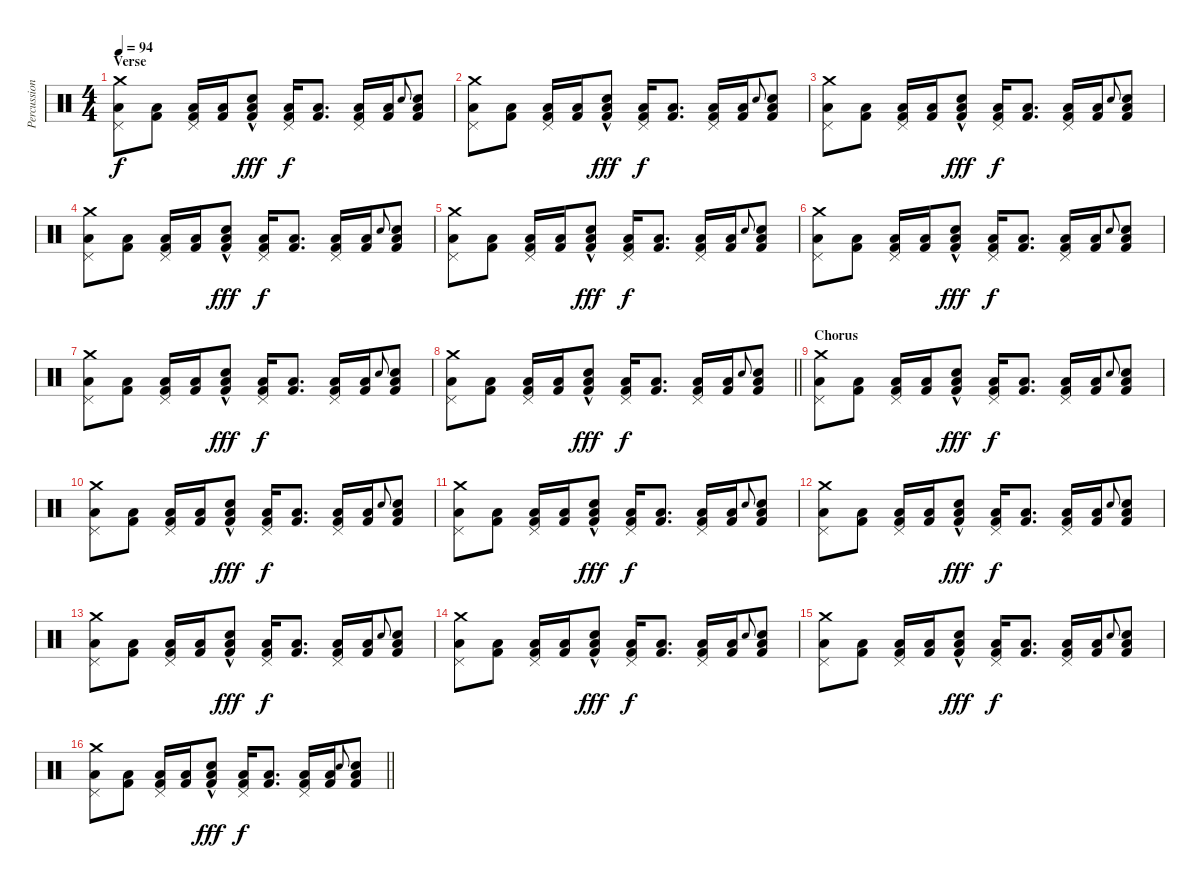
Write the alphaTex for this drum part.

\track ("Percussion" "Percussion") {instrument percussion}
\staff {score}
\articulation defaults
\ts (4 4)
\section ("" "Verse")
\tempo 94
\clef neutral
\ks c
("Crash medium (hit)" "Pedal Hi-Hat (hit)" "Low Floor Tom (hit)").8{dy f} ("Kick (hit) 2" "Low Floor Tom (hit)").8 ("Kick (hit) 2" "Pedal Hi-Hat (hit)" "Low Floor Tom (hit)").16 ("Kick (hit) 2" "Low Floor Tom (hit)").16 ("Snare (hit) 2"{hac} "Kick (hit) 2" "Low Floor Tom (hit)").8{dy fff} ("Kick (hit) 2" "Pedal Hi-Hat (hit)" "Low Floor Tom (hit)").16{dy f} ("Kick (hit) 2" "Low Floor Tom (hit)").8{d} ("Kick (hit) 2" "Pedal Hi-Hat (hit)" "Low Floor Tom (hit)").16 ("Kick (hit) 2" "Low Floor Tom (hit)").16 "Snare (hit) 2".8{gr onbeat} ("Snare (hit) 2" "Kick (hit) 2" "Low Floor Tom (hit)").8 |
("Crash medium (hit)" "Pedal Hi-Hat (hit)" "Low Floor Tom (hit)").8 ("Kick (hit) 2" "Low Floor Tom (hit)").8 ("Kick (hit) 2" "Pedal Hi-Hat (hit)" "Low Floor Tom (hit)").16 ("Kick (hit) 2" "Low Floor Tom (hit)").16 ("Snare (hit) 2"{hac} "Kick (hit) 2" "Low Floor Tom (hit)").8{dy fff} ("Kick (hit) 2" "Pedal Hi-Hat (hit)" "Low Floor Tom (hit)").16{dy f} ("Kick (hit) 2" "Low Floor Tom (hit)").8{d} ("Kick (hit) 2" "Pedal Hi-Hat (hit)" "Low Floor Tom (hit)").16 ("Kick (hit) 2" "Low Floor Tom (hit)").16 "Snare (hit) 2".8{gr onbeat} ("Snare (hit) 2" "Kick (hit) 2" "Low Floor Tom (hit)").8 |
("Crash medium (hit)" "Pedal Hi-Hat (hit)" "Low Floor Tom (hit)").8 ("Kick (hit) 2" "Low Floor Tom (hit)").8 ("Kick (hit) 2" "Pedal Hi-Hat (hit)" "Low Floor Tom (hit)").16 ("Kick (hit) 2" "Low Floor Tom (hit)").16 ("Snare (hit) 2"{hac} "Kick (hit) 2" "Low Floor Tom (hit)").8{dy fff} ("Kick (hit) 2" "Pedal Hi-Hat (hit)" "Low Floor Tom (hit)").16{dy f} ("Kick (hit) 2" "Low Floor Tom (hit)").8{d} ("Kick (hit) 2" "Pedal Hi-Hat (hit)" "Low Floor Tom (hit)").16 ("Kick (hit) 2" "Low Floor Tom (hit)").16 "Snare (hit) 2".8{gr onbeat} ("Snare (hit) 2" "Kick (hit) 2" "Low Floor Tom (hit)").8 |
("Crash medium (hit)" "Pedal Hi-Hat (hit)" "Low Floor Tom (hit)").8 ("Kick (hit) 2" "Low Floor Tom (hit)").8 ("Kick (hit) 2" "Pedal Hi-Hat (hit)" "Low Floor Tom (hit)").16 ("Kick (hit) 2" "Low Floor Tom (hit)").16 ("Snare (hit) 2"{hac} "Kick (hit) 2" "Low Floor Tom (hit)").8{dy fff} ("Kick (hit) 2" "Pedal Hi-Hat (hit)" "Low Floor Tom (hit)").16{dy f} ("Kick (hit) 2" "Low Floor Tom (hit)").8{d} ("Kick (hit) 2" "Pedal Hi-Hat (hit)" "Low Floor Tom (hit)").16 ("Kick (hit) 2" "Low Floor Tom (hit)").16 "Snare (hit) 2".8{gr onbeat} ("Snare (hit) 2" "Kick (hit) 2" "Low Floor Tom (hit)").8 |
("Crash medium (hit)" "Pedal Hi-Hat (hit)" "Low Floor Tom (hit)").8 ("Kick (hit) 2" "Low Floor Tom (hit)").8 ("Kick (hit) 2" "Pedal Hi-Hat (hit)" "Low Floor Tom (hit)").16 ("Kick (hit) 2" "Low Floor Tom (hit)").16 ("Snare (hit) 2"{hac} "Kick (hit) 2" "Low Floor Tom (hit)").8{dy fff} ("Kick (hit) 2" "Pedal Hi-Hat (hit)" "Low Floor Tom (hit)").16{dy f} ("Kick (hit) 2" "Low Floor Tom (hit)").8{d} ("Kick (hit) 2" "Pedal Hi-Hat (hit)" "Low Floor Tom (hit)").16 ("Kick (hit) 2" "Low Floor Tom (hit)").16 "Snare (hit) 2".8{gr onbeat} ("Snare (hit) 2" "Kick (hit) 2" "Low Floor Tom (hit)").8 |
("Crash medium (hit)" "Pedal Hi-Hat (hit)" "Low Floor Tom (hit)").8 ("Kick (hit) 2" "Low Floor Tom (hit)").8 ("Kick (hit) 2" "Pedal Hi-Hat (hit)" "Low Floor Tom (hit)").16 ("Kick (hit) 2" "Low Floor Tom (hit)").16 ("Snare (hit) 2"{hac} "Kick (hit) 2" "Low Floor Tom (hit)").8{dy fff} ("Kick (hit) 2" "Pedal Hi-Hat (hit)" "Low Floor Tom (hit)").16{dy f} ("Kick (hit) 2" "Low Floor Tom (hit)").8{d} ("Kick (hit) 2" "Pedal Hi-Hat (hit)" "Low Floor Tom (hit)").16 ("Kick (hit) 2" "Low Floor Tom (hit)").16 "Snare (hit) 2".8{gr onbeat} ("Snare (hit) 2" "Kick (hit) 2" "Low Floor Tom (hit)").8 |
("Crash medium (hit)" "Pedal Hi-Hat (hit)" "Low Floor Tom (hit)").8 ("Kick (hit) 2" "Low Floor Tom (hit)").8 ("Kick (hit) 2" "Pedal Hi-Hat (hit)" "Low Floor Tom (hit)").16 ("Kick (hit) 2" "Low Floor Tom (hit)").16 ("Snare (hit) 2"{hac} "Kick (hit) 2" "Low Floor Tom (hit)").8{dy fff} ("Kick (hit) 2" "Pedal Hi-Hat (hit)" "Low Floor Tom (hit)").16{dy f} ("Kick (hit) 2" "Low Floor Tom (hit)").8{d} ("Kick (hit) 2" "Pedal Hi-Hat (hit)" "Low Floor Tom (hit)").16 ("Kick (hit) 2" "Low Floor Tom (hit)").16 "Snare (hit) 2".8{gr onbeat} ("Snare (hit) 2" "Kick (hit) 2" "Low Floor Tom (hit)").8 |
\barLineRight lightlight
("Crash medium (hit)" "Pedal Hi-Hat (hit)" "Low Floor Tom (hit)").8 ("Kick (hit) 2" "Low Floor Tom (hit)").8 ("Kick (hit) 2" "Pedal Hi-Hat (hit)" "Low Floor Tom (hit)").16 ("Kick (hit) 2" "Low Floor Tom (hit)").16 ("Snare (hit) 2"{hac} "Kick (hit) 2" "Low Floor Tom (hit)").8{dy fff} ("Kick (hit) 2" "Pedal Hi-Hat (hit)" "Low Floor Tom (hit)").16{dy f} ("Kick (hit) 2" "Low Floor Tom (hit)").8{d} ("Kick (hit) 2" "Pedal Hi-Hat (hit)" "Low Floor Tom (hit)").16 ("Kick (hit) 2" "Low Floor Tom (hit)").16 "Snare (hit) 2".8{gr onbeat} ("Snare (hit) 2" "Kick (hit) 2" "Low Floor Tom (hit)").8 |
\section ("" "Chorus")
("Crash medium (hit)" "Pedal Hi-Hat (hit)" "Low Floor Tom (hit)").8 ("Kick (hit) 2" "Low Floor Tom (hit)").8 ("Kick (hit) 2" "Pedal Hi-Hat (hit)" "Low Floor Tom (hit)").16 ("Kick (hit) 2" "Low Floor Tom (hit)").16 ("Snare (hit) 2"{hac} "Kick (hit) 2" "Low Floor Tom (hit)").8{dy fff} ("Kick (hit) 2" "Pedal Hi-Hat (hit)" "Low Floor Tom (hit)").16{dy f} ("Kick (hit) 2" "Low Floor Tom (hit)").8{d} ("Kick (hit) 2" "Pedal Hi-Hat (hit)" "Low Floor Tom (hit)").16 ("Kick (hit) 2" "Low Floor Tom (hit)").16 "Snare (hit) 2".8{gr onbeat} ("Snare (hit) 2" "Kick (hit) 2" "Low Floor Tom (hit)").8 |
("Crash medium (hit)" "Pedal Hi-Hat (hit)" "Low Floor Tom (hit)").8 ("Kick (hit) 2" "Low Floor Tom (hit)").8 ("Kick (hit) 2" "Pedal Hi-Hat (hit)" "Low Floor Tom (hit)").16 ("Kick (hit) 2" "Low Floor Tom (hit)").16 ("Snare (hit) 2"{hac} "Kick (hit) 2" "Low Floor Tom (hit)").8{dy fff} ("Kick (hit) 2" "Pedal Hi-Hat (hit)" "Low Floor Tom (hit)").16{dy f} ("Kick (hit) 2" "Low Floor Tom (hit)").8{d} ("Kick (hit) 2" "Pedal Hi-Hat (hit)" "Low Floor Tom (hit)").16 ("Kick (hit) 2" "Low Floor Tom (hit)").16 "Snare (hit) 2".8{gr onbeat} ("Snare (hit) 2" "Kick (hit) 2" "Low Floor Tom (hit)").8 |
("Crash medium (hit)" "Pedal Hi-Hat (hit)" "Low Floor Tom (hit)").8 ("Kick (hit) 2" "Low Floor Tom (hit)").8 ("Kick (hit) 2" "Pedal Hi-Hat (hit)" "Low Floor Tom (hit)").16 ("Kick (hit) 2" "Low Floor Tom (hit)").16 ("Snare (hit) 2"{hac} "Kick (hit) 2" "Low Floor Tom (hit)").8{dy fff} ("Kick (hit) 2" "Pedal Hi-Hat (hit)" "Low Floor Tom (hit)").16{dy f} ("Kick (hit) 2" "Low Floor Tom (hit)").8{d} ("Kick (hit) 2" "Pedal Hi-Hat (hit)" "Low Floor Tom (hit)").16 ("Kick (hit) 2" "Low Floor Tom (hit)").16 "Snare (hit) 2".8{gr onbeat} ("Snare (hit) 2" "Kick (hit) 2" "Low Floor Tom (hit)").8 |
("Crash medium (hit)" "Pedal Hi-Hat (hit)" "Low Floor Tom (hit)").8 ("Kick (hit) 2" "Low Floor Tom (hit)").8 ("Kick (hit) 2" "Pedal Hi-Hat (hit)" "Low Floor Tom (hit)").16 ("Kick (hit) 2" "Low Floor Tom (hit)").16 ("Snare (hit) 2"{hac} "Kick (hit) 2" "Low Floor Tom (hit)").8{dy fff} ("Kick (hit) 2" "Pedal Hi-Hat (hit)" "Low Floor Tom (hit)").16{dy f} ("Kick (hit) 2" "Low Floor Tom (hit)").8{d} ("Kick (hit) 2" "Pedal Hi-Hat (hit)" "Low Floor Tom (hit)").16 ("Kick (hit) 2" "Low Floor Tom (hit)").16 "Snare (hit) 2".8{gr onbeat} ("Snare (hit) 2" "Kick (hit) 2" "Low Floor Tom (hit)").8 |
("Crash medium (hit)" "Pedal Hi-Hat (hit)" "Low Floor Tom (hit)").8 ("Kick (hit) 2" "Low Floor Tom (hit)").8 ("Kick (hit) 2" "Pedal Hi-Hat (hit)" "Low Floor Tom (hit)").16 ("Kick (hit) 2" "Low Floor Tom (hit)").16 ("Snare (hit) 2"{hac} "Kick (hit) 2" "Low Floor Tom (hit)").8{dy fff} ("Kick (hit) 2" "Pedal Hi-Hat (hit)" "Low Floor Tom (hit)").16{dy f} ("Kick (hit) 2" "Low Floor Tom (hit)").8{d} ("Kick (hit) 2" "Pedal Hi-Hat (hit)" "Low Floor Tom (hit)").16 ("Kick (hit) 2" "Low Floor Tom (hit)").16 "Snare (hit) 2".8{gr onbeat} ("Snare (hit) 2" "Kick (hit) 2" "Low Floor Tom (hit)").8 |
("Crash medium (hit)" "Pedal Hi-Hat (hit)" "Low Floor Tom (hit)").8 ("Kick (hit) 2" "Low Floor Tom (hit)").8 ("Kick (hit) 2" "Pedal Hi-Hat (hit)" "Low Floor Tom (hit)").16 ("Kick (hit) 2" "Low Floor Tom (hit)").16 ("Snare (hit) 2"{hac} "Kick (hit) 2" "Low Floor Tom (hit)").8{dy fff} ("Kick (hit) 2" "Pedal Hi-Hat (hit)" "Low Floor Tom (hit)").16{dy f} ("Kick (hit) 2" "Low Floor Tom (hit)").8{d} ("Kick (hit) 2" "Pedal Hi-Hat (hit)" "Low Floor Tom (hit)").16 ("Kick (hit) 2" "Low Floor Tom (hit)").16 "Snare (hit) 2".8{gr onbeat} ("Snare (hit) 2" "Kick (hit) 2" "Low Floor Tom (hit)").8 |
("Crash medium (hit)" "Pedal Hi-Hat (hit)" "Low Floor Tom (hit)").8 ("Kick (hit) 2" "Low Floor Tom (hit)").8 ("Kick (hit) 2" "Pedal Hi-Hat (hit)" "Low Floor Tom (hit)").16 ("Kick (hit) 2" "Low Floor Tom (hit)").16 ("Snare (hit) 2"{hac} "Kick (hit) 2" "Low Floor Tom (hit)").8{dy fff} ("Kick (hit) 2" "Pedal Hi-Hat (hit)" "Low Floor Tom (hit)").16{dy f} ("Kick (hit) 2" "Low Floor Tom (hit)").8{d} ("Kick (hit) 2" "Pedal Hi-Hat (hit)" "Low Floor Tom (hit)").16 ("Kick (hit) 2" "Low Floor Tom (hit)").16 "Snare (hit) 2".8{gr onbeat} ("Snare (hit) 2" "Kick (hit) 2" "Low Floor Tom (hit)").8 |
\barLineRight lightlight
("Crash medium (hit)" "Pedal Hi-Hat (hit)" "Low Floor Tom (hit)").8 ("Kick (hit) 2" "Low Floor Tom (hit)").8 ("Kick (hit) 2" "Pedal Hi-Hat (hit)" "Low Floor Tom (hit)").16 ("Kick (hit) 2" "Low Floor Tom (hit)").16 ("Snare (hit) 2"{hac} "Kick (hit) 2" "Low Floor Tom (hit)").8{dy fff} ("Kick (hit) 2" "Pedal Hi-Hat (hit)" "Low Floor Tom (hit)").16{dy f} ("Kick (hit) 2" "Low Floor Tom (hit)").8{d} ("Kick (hit) 2" "Pedal Hi-Hat (hit)" "Low Floor Tom (hit)").16 ("Kick (hit) 2" "Low Floor Tom (hit)").16 "Snare (hit) 2".8{gr onbeat} ("Snare (hit) 2" "Kick (hit) 2" "Low Floor Tom (hit)").8
